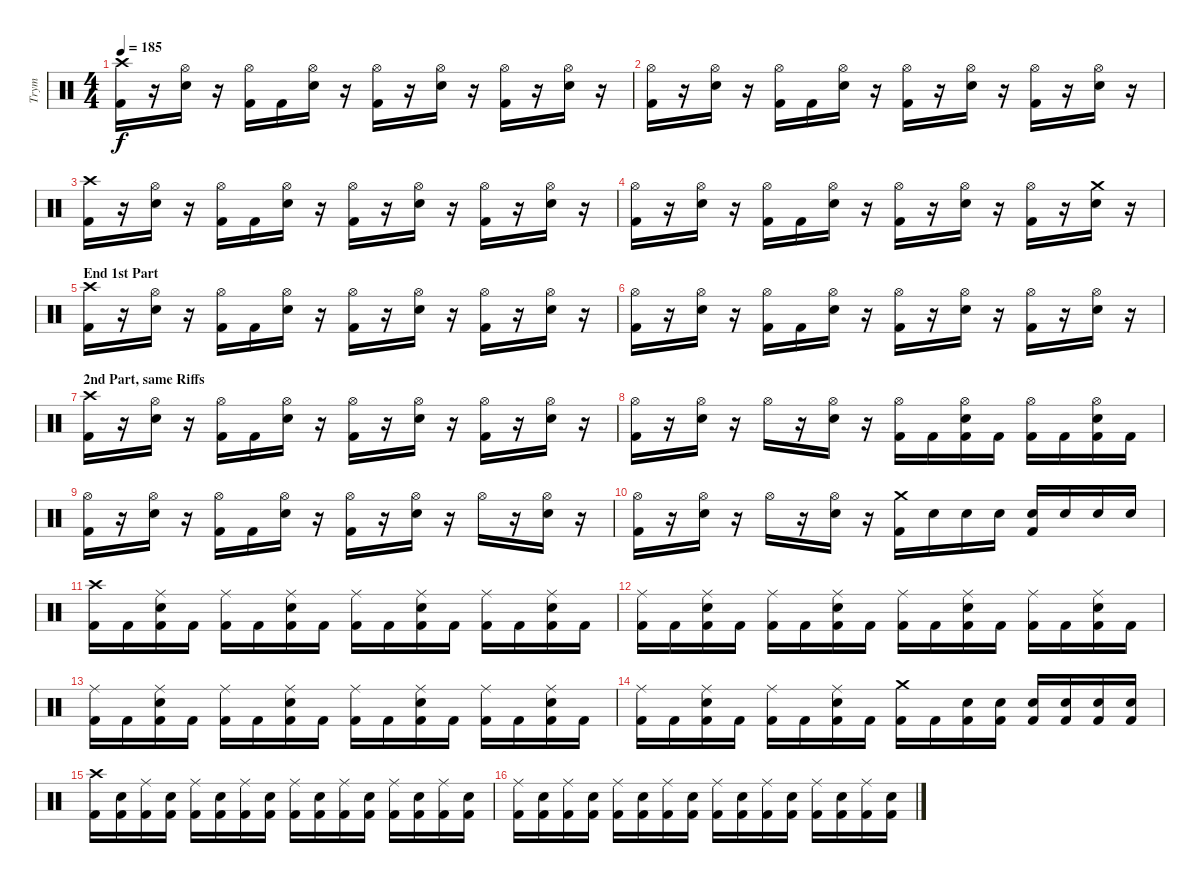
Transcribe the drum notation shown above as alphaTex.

\track ("Trym" "Trym") {instrument percussion}
\staff {score}
\articulation defaults
\ts (4 4)
\tempo 185
\clef neutral
\ks c
("Kick (hit) 2" "Crash high (hit)").16{dy f} r.16 ("Electric Snare (hit)" "Hi-Hat (open)").16 r.16 ("Kick (hit) 2" "Hi-Hat (open)").16 "Kick (hit) 2".16 ("Electric Snare (hit)" "Hi-Hat (open)").16 r.16 ("Kick (hit) 2" "Hi-Hat (open)").16 r.16 ("Electric Snare (hit)" "Hi-Hat (open)").16 r.16 ("Kick (hit) 2" "Hi-Hat (open)").16 r.16 ("Electric Snare (hit)" "Hi-Hat (open)").16 r.16 |
("Kick (hit) 2" "Hi-Hat (open)").16 r.16 ("Electric Snare (hit)" "Hi-Hat (open)").16 r.16 ("Kick (hit) 2" "Hi-Hat (open)").16 "Kick (hit) 2".16 ("Electric Snare (hit)" "Hi-Hat (open)").16 r.16 ("Kick (hit) 2" "Hi-Hat (open)").16 r.16 ("Electric Snare (hit)" "Hi-Hat (open)").16 r.16 ("Kick (hit) 2" "Hi-Hat (open)").16 r.16 ("Electric Snare (hit)" "Hi-Hat (open)").16 r.16 |
("Kick (hit) 2" "Crash high (hit)").16 r.16 ("Electric Snare (hit)" "Hi-Hat (open)").16 r.16 ("Kick (hit) 2" "Hi-Hat (open)").16 "Kick (hit) 2".16 ("Electric Snare (hit)" "Hi-Hat (open)").16 r.16 ("Kick (hit) 2" "Hi-Hat (open)").16 r.16 ("Electric Snare (hit)" "Hi-Hat (open)").16 r.16 ("Kick (hit) 2" "Hi-Hat (open)").16 r.16 ("Electric Snare (hit)" "Hi-Hat (open)").16 r.16 |
("Kick (hit) 2" "Hi-Hat (open)").16 r.16 ("Electric Snare (hit)" "Hi-Hat (open)").16 r.16 ("Kick (hit) 2" "Hi-Hat (open)").16 "Kick (hit) 2".16 ("Electric Snare (hit)" "Hi-Hat (open)").16 r.16 ("Kick (hit) 2" "Hi-Hat (open)").16 r.16 ("Electric Snare (hit)" "Hi-Hat (open)").16 r.16 ("Kick (hit) 2" "Hi-Hat (open)").16 r.16 ("Electric Snare (hit)" "Crash medium (hit)").16 r.16 |
\section ("" "End 1st Part")
("Kick (hit) 2" "Crash high (hit)").16 r.16 ("Electric Snare (hit)" "Hi-Hat (open)").16 r.16 ("Kick (hit) 2" "Hi-Hat (open)").16 "Kick (hit) 2".16 ("Electric Snare (hit)" "Hi-Hat (open)").16 r.16 ("Kick (hit) 2" "Hi-Hat (open)").16 r.16 ("Electric Snare (hit)" "Hi-Hat (open)").16 r.16 ("Kick (hit) 2" "Hi-Hat (open)").16 r.16 ("Electric Snare (hit)" "Hi-Hat (open)").16 r.16 |
("Kick (hit) 2" "Hi-Hat (open)").16 r.16 ("Electric Snare (hit)" "Hi-Hat (open)").16 r.16 ("Kick (hit) 2" "Hi-Hat (open)").16 "Kick (hit) 2".16 ("Electric Snare (hit)" "Hi-Hat (open)").16 r.16 ("Kick (hit) 2" "Hi-Hat (open)").16 r.16 ("Electric Snare (hit)" "Hi-Hat (open)").16 r.16 ("Kick (hit) 2" "Hi-Hat (open)").16 r.16 ("Electric Snare (hit)" "Hi-Hat (open)").16 r.16 |
\section ("" "2nd Part, same Riffs")
("Kick (hit) 2" "Crash high (hit)").16 r.16 ("Electric Snare (hit)" "Hi-Hat (open)").16 r.16 ("Kick (hit) 2" "Hi-Hat (open)").16 "Kick (hit) 2".16 ("Electric Snare (hit)" "Hi-Hat (open)").16 r.16 ("Kick (hit) 2" "Hi-Hat (open)").16 r.16 ("Electric Snare (hit)" "Hi-Hat (open)").16 r.16 ("Kick (hit) 2" "Hi-Hat (open)").16 r.16 ("Electric Snare (hit)" "Hi-Hat (open)").16 r.16 |
("Kick (hit) 2" "Hi-Hat (open)").16 r.16 ("Electric Snare (hit)" "Hi-Hat (open)").16 r.16 "Hi-Hat (open)".16 r.16 ("Electric Snare (hit)" "Hi-Hat (open)").16 r.16 ("Kick (hit) 2" "Hi-Hat (open)").16 "Kick (hit) 2".16 ("Kick (hit) 2" "Electric Snare (hit)" "Hi-Hat (open)").16 "Kick (hit) 2".16 ("Kick (hit) 2" "Hi-Hat (open)").16 "Kick (hit) 2".16 ("Kick (hit) 2" "Electric Snare (hit)" "Hi-Hat (open)").16 "Kick (hit) 2".16 |
("Kick (hit) 2" "Hi-Hat (open)").16 r.16 ("Electric Snare (hit)" "Hi-Hat (open)").16 r.16 ("Kick (hit) 2" "Hi-Hat (open)").16 "Kick (hit) 2".16 ("Electric Snare (hit)" "Hi-Hat (open)").16 r.16 ("Kick (hit) 2" "Hi-Hat (open)").16 r.16 ("Electric Snare (hit)" "Hi-Hat (open)").16 r.16 "Hi-Hat (open)".16 r.16 ("Electric Snare (hit)" "Hi-Hat (open)").16 r.16 |
("Kick (hit) 2" "Hi-Hat (open)").16 r.16 ("Electric Snare (hit)" "Hi-Hat (open)").16 r.16 "Hi-Hat (open)".16 r.16 ("Electric Snare (hit)" "Hi-Hat (open)").16 r.16 ("Kick (hit) 2" "Crash medium (hit)").16 "Electric Snare (hit)".16 "Electric Snare (hit)".16 "Electric Snare (hit)".16 ("Kick (hit) 2" "Electric Snare (hit)").16 "Electric Snare (hit)".16 "Electric Snare (hit)".16 "Electric Snare (hit)".16 |
("Kick (hit) 2" "Crash high (hit)").16 "Kick (hit) 2".16 ("Kick (hit) 2" "Electric Snare (hit)" "Ride (middle)").16 "Kick (hit) 2".16 ("Kick (hit) 2" "Ride (middle)").16 "Kick (hit) 2".16 ("Kick (hit) 2" "Electric Snare (hit)" "Ride (middle)").16 "Kick (hit) 2".16 ("Kick (hit) 2" "Ride (middle)").16 "Kick (hit) 2".16 ("Kick (hit) 2" "Electric Snare (hit)" "Ride (middle)").16 "Kick (hit) 2".16 ("Kick (hit) 2" "Ride (middle)").16 "Kick (hit) 2".16 ("Kick (hit) 2" "Electric Snare (hit)" "Ride (middle)").16 "Kick (hit) 2".16 |
("Kick (hit) 2" "Ride (middle)").16 "Kick (hit) 2".16 ("Kick (hit) 2" "Electric Snare (hit)" "Ride (middle)").16 "Kick (hit) 2".16 ("Kick (hit) 2" "Ride (middle)").16 "Kick (hit) 2".16 ("Kick (hit) 2" "Electric Snare (hit)" "Ride (middle)").16 "Kick (hit) 2".16 ("Kick (hit) 2" "Ride (middle)").16 "Kick (hit) 2".16 ("Kick (hit) 2" "Electric Snare (hit)" "Ride (middle)").16 "Kick (hit) 2".16 ("Kick (hit) 2" "Ride (middle)").16 "Kick (hit) 2".16 ("Kick (hit) 2" "Electric Snare (hit)" "Ride (middle)").16 "Kick (hit) 2".16 |
("Kick (hit) 2" "Ride (middle)").16 "Kick (hit) 2".16 ("Kick (hit) 2" "Electric Snare (hit)" "Ride (middle)").16 "Kick (hit) 2".16 ("Kick (hit) 2" "Ride (middle)").16 "Kick (hit) 2".16 ("Kick (hit) 2" "Electric Snare (hit)" "Ride (middle)").16 "Kick (hit) 2".16 ("Kick (hit) 2" "Ride (middle)").16 "Kick (hit) 2".16 ("Kick (hit) 2" "Electric Snare (hit)" "Ride (middle)").16 "Kick (hit) 2".16 ("Kick (hit) 2" "Ride (middle)").16 "Kick (hit) 2".16 ("Kick (hit) 2" "Electric Snare (hit)" "Ride (middle)").16 "Kick (hit) 2".16 |
("Kick (hit) 2" "Ride (middle)").16 "Kick (hit) 2".16 ("Kick (hit) 2" "Electric Snare (hit)" "Ride (middle)").16 "Kick (hit) 2".16 ("Kick (hit) 2" "Ride (middle)").16 "Kick (hit) 2".16 ("Kick (hit) 2" "Electric Snare (hit)" "Ride (middle)").16 "Kick (hit) 2".16 ("Kick (hit) 2" "Crash medium (hit)").16 "Kick (hit) 2".16 ("Kick (hit) 2" "Electric Snare (hit)").16 ("Kick (hit) 2" "Electric Snare (hit)").16 ("Kick (hit) 2" "Electric Snare (hit)").16 ("Kick (hit) 2" "Electric Snare (hit)").16 ("Kick (hit) 2" "Electric Snare (hit)").16 ("Kick (hit) 2" "Electric Snare (hit)").16 |
("Kick (hit) 2" "Crash high (hit)").16 ("Kick (hit) 2" "Electric Snare (hit)").16 ("Kick (hit) 2" "Ride (middle)").16 ("Kick (hit) 2" "Electric Snare (hit)").16 ("Kick (hit) 2" "Ride (middle)").16 ("Kick (hit) 2" "Electric Snare (hit)").16 ("Kick (hit) 2" "Ride (middle)").16 ("Kick (hit) 2" "Electric Snare (hit)").16 ("Kick (hit) 2" "Ride (middle)").16 ("Kick (hit) 2" "Electric Snare (hit)").16 ("Kick (hit) 2" "Ride (middle)").16 ("Kick (hit) 2" "Electric Snare (hit)").16 ("Kick (hit) 2" "Ride (middle)").16 ("Kick (hit) 2" "Electric Snare (hit)").16 ("Kick (hit) 2" "Ride (middle)").16 ("Kick (hit) 2" "Electric Snare (hit)").16 |
("Kick (hit) 2" "Ride (middle)").16 ("Kick (hit) 2" "Electric Snare (hit)").16 ("Kick (hit) 2" "Ride (middle)").16 ("Kick (hit) 2" "Electric Snare (hit)").16 ("Kick (hit) 2" "Ride (middle)").16 ("Kick (hit) 2" "Electric Snare (hit)").16 ("Kick (hit) 2" "Ride (middle)").16 ("Kick (hit) 2" "Electric Snare (hit)").16 ("Kick (hit) 2" "Ride (middle)").16 ("Kick (hit) 2" "Electric Snare (hit)").16 ("Kick (hit) 2" "Ride (middle)").16 ("Kick (hit) 2" "Electric Snare (hit)").16 ("Kick (hit) 2" "Ride (middle)").16 ("Kick (hit) 2" "Electric Snare (hit)").16 ("Kick (hit) 2" "Ride (middle)").16 ("Kick (hit) 2" "Electric Snare (hit)").16
